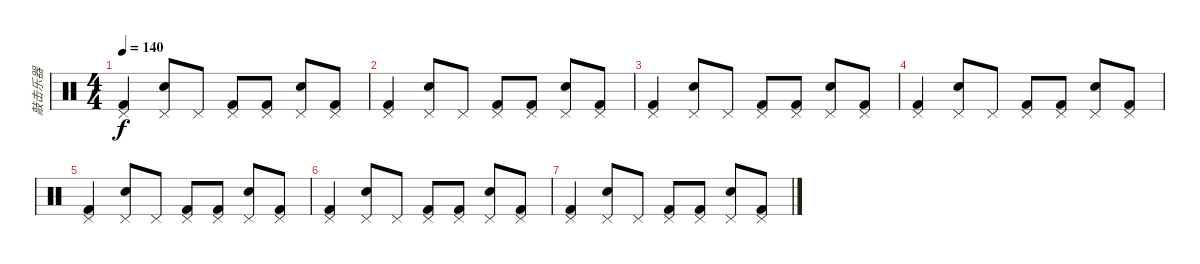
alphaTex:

\track ("敲击乐器" "敲击乐器") {instrument percussion}
\staff {score}
\articulation defaults
\ts (4 4)
\tempo 140
\clef neutral
\ks c
("Kick (hit) 2" "Pedal Hi-Hat (hit)").4{dy f volume 11} ("Snare (hit) 2" "Pedal Hi-Hat (hit)").8 "Pedal Hi-Hat (hit)".8 ("Kick (hit) 2" "Pedal Hi-Hat (hit)").8 ("Kick (hit) 2" "Pedal Hi-Hat (hit)").8 ("Snare (hit) 2" "Pedal Hi-Hat (hit)").8 ("Kick (hit) 2" "Pedal Hi-Hat (hit)").8 |
("Kick (hit) 2" "Pedal Hi-Hat (hit)").4{volume 9} ("Snare (hit) 2" "Pedal Hi-Hat (hit)").8 "Pedal Hi-Hat (hit)".8 ("Kick (hit) 2" "Pedal Hi-Hat (hit)").8 ("Kick (hit) 2" "Pedal Hi-Hat (hit)").8 ("Snare (hit) 2" "Pedal Hi-Hat (hit)").8 ("Kick (hit) 2" "Pedal Hi-Hat (hit)").8 |
("Kick (hit) 2" "Pedal Hi-Hat (hit)").4{volume 7} ("Snare (hit) 2" "Pedal Hi-Hat (hit)").8 "Pedal Hi-Hat (hit)".8 ("Kick (hit) 2" "Pedal Hi-Hat (hit)").8 ("Kick (hit) 2" "Pedal Hi-Hat (hit)").8 ("Snare (hit) 2" "Pedal Hi-Hat (hit)").8 ("Kick (hit) 2" "Pedal Hi-Hat (hit)").8 |
("Kick (hit) 2" "Pedal Hi-Hat (hit)").4{volume 5} ("Snare (hit) 2" "Pedal Hi-Hat (hit)").8 "Pedal Hi-Hat (hit)".8 ("Kick (hit) 2" "Pedal Hi-Hat (hit)").8 ("Kick (hit) 2" "Pedal Hi-Hat (hit)").8 ("Snare (hit) 2" "Pedal Hi-Hat (hit)").8 ("Kick (hit) 2" "Pedal Hi-Hat (hit)").8 |
("Kick (hit) 2" "Pedal Hi-Hat (hit)").4{volume 3} ("Snare (hit) 2" "Pedal Hi-Hat (hit)").8 "Pedal Hi-Hat (hit)".8 ("Kick (hit) 2" "Pedal Hi-Hat (hit)").8 ("Kick (hit) 2" "Pedal Hi-Hat (hit)").8 ("Snare (hit) 2" "Pedal Hi-Hat (hit)").8 ("Kick (hit) 2" "Pedal Hi-Hat (hit)").8 |
("Kick (hit) 2" "Pedal Hi-Hat (hit)").4{volume 1} ("Snare (hit) 2" "Pedal Hi-Hat (hit)").8 "Pedal Hi-Hat (hit)".8 ("Kick (hit) 2" "Pedal Hi-Hat (hit)").8 ("Kick (hit) 2" "Pedal Hi-Hat (hit)").8 ("Snare (hit) 2" "Pedal Hi-Hat (hit)").8 ("Kick (hit) 2" "Pedal Hi-Hat (hit)").8 |
("Kick (hit) 2" "Pedal Hi-Hat (hit)").4{volume 0} ("Snare (hit) 2" "Pedal Hi-Hat (hit)").8 "Pedal Hi-Hat (hit)".8 ("Kick (hit) 2" "Pedal Hi-Hat (hit)").8 ("Kick (hit) 2" "Pedal Hi-Hat (hit)").8 ("Snare (hit) 2" "Pedal Hi-Hat (hit)").8 ("Kick (hit) 2" "Pedal Hi-Hat (hit)").8
